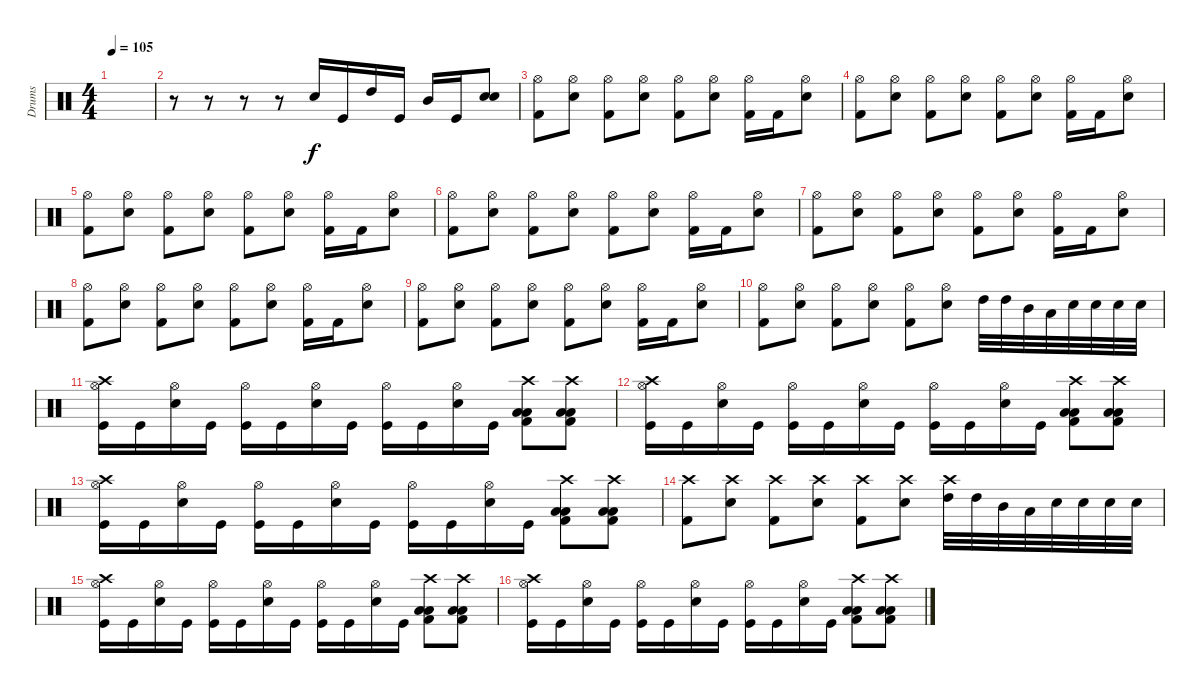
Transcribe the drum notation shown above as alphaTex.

\track ("Drums" "Drums") {instrument percussion}
\staff {score}
\articulation defaults
\ts (4 4)
\tempo 105
\clef neutral
\ks c
|
r.8 r.8 r.8 r.8 "Snare (hit) 2".16 "Kick (hit)".16 "High Tom (hit)".16 "Kick (hit)".16 "Mid Tom (hit)".16 "Kick (hit)".16 ("Snare (hit) 2" "Snare (hit) 2").8 |
("Hi-Hat (open)" "Kick (hit) 2").8 ("Hi-Hat (open)" "Snare (hit) 2").8 ("Hi-Hat (open)" "Kick (hit) 2").8 ("Hi-Hat (open)" "Snare (hit) 2").8 ("Hi-Hat (open)" "Kick (hit) 2").8 ("Hi-Hat (open)" "Snare (hit) 2").8 ("Hi-Hat (open)" "Kick (hit) 2").16 "Kick (hit) 2".16 ("Hi-Hat (open)" "Snare (hit) 2").8 |
("Hi-Hat (open)" "Kick (hit) 2").8 ("Hi-Hat (open)" "Snare (hit) 2").8 ("Hi-Hat (open)" "Kick (hit) 2").8 ("Hi-Hat (open)" "Snare (hit) 2").8 ("Hi-Hat (open)" "Kick (hit) 2").8 ("Hi-Hat (open)" "Snare (hit) 2").8 ("Hi-Hat (open)" "Kick (hit) 2").16 "Kick (hit) 2".16 ("Hi-Hat (open)" "Snare (hit) 2").8 |
("Hi-Hat (open)" "Kick (hit) 2").8 ("Hi-Hat (open)" "Snare (hit) 2").8 ("Hi-Hat (open)" "Kick (hit) 2").8 ("Hi-Hat (open)" "Snare (hit) 2").8 ("Hi-Hat (open)" "Kick (hit) 2").8 ("Hi-Hat (open)" "Snare (hit) 2").8 ("Hi-Hat (open)" "Kick (hit) 2").16 "Kick (hit) 2".16 ("Hi-Hat (open)" "Snare (hit) 2").8 |
("Hi-Hat (open)" "Kick (hit) 2").8 ("Hi-Hat (open)" "Snare (hit) 2").8 ("Hi-Hat (open)" "Kick (hit) 2").8 ("Hi-Hat (open)" "Snare (hit) 2").8 ("Hi-Hat (open)" "Kick (hit) 2").8 ("Hi-Hat (open)" "Snare (hit) 2").8 ("Hi-Hat (open)" "Kick (hit) 2").16 "Kick (hit) 2".16 ("Hi-Hat (open)" "Snare (hit) 2").8 |
("Hi-Hat (open)" "Kick (hit) 2").8 ("Hi-Hat (open)" "Snare (hit) 2").8 ("Hi-Hat (open)" "Kick (hit) 2").8 ("Hi-Hat (open)" "Snare (hit) 2").8 ("Hi-Hat (open)" "Kick (hit) 2").8 ("Hi-Hat (open)" "Snare (hit) 2").8 ("Hi-Hat (open)" "Kick (hit) 2").16 "Kick (hit) 2".16 ("Hi-Hat (open)" "Snare (hit) 2").8 |
("Hi-Hat (open)" "Kick (hit) 2").8 ("Hi-Hat (open)" "Snare (hit) 2").8 ("Hi-Hat (open)" "Kick (hit) 2").8 ("Hi-Hat (open)" "Snare (hit) 2").8 ("Hi-Hat (open)" "Kick (hit) 2").8 ("Hi-Hat (open)" "Snare (hit) 2").8 ("Hi-Hat (open)" "Kick (hit) 2").16 "Kick (hit) 2".16 ("Hi-Hat (open)" "Snare (hit) 2").8 |
("Hi-Hat (open)" "Kick (hit) 2").8 ("Hi-Hat (open)" "Snare (hit) 2").8 ("Hi-Hat (open)" "Kick (hit) 2").8 ("Hi-Hat (open)" "Snare (hit) 2").8 ("Hi-Hat (open)" "Kick (hit) 2").8 ("Hi-Hat (open)" "Snare (hit) 2").8 ("Hi-Hat (open)" "Kick (hit) 2").16 "Kick (hit) 2".16 ("Hi-Hat (open)" "Snare (hit) 2").8 |
("Hi-Hat (open)" "Kick (hit) 2").8 ("Hi-Hat (open)" "Snare (hit) 2").8 ("Hi-Hat (open)" "Kick (hit) 2").8 ("Hi-Hat (open)" "Snare (hit) 2").8 ("Hi-Hat (open)" "Kick (hit) 2").8 ("Hi-Hat (open)" "Snare (hit) 2").8 "High Tom (hit)".32 "High Tom (hit)".32 "Mid Tom (hit)".32 "Low Tom (hit)".32 "Snare (hit) 2".32 "Snare (hit) 2".32 "Snare (hit) 2".32 "Snare (hit) 2".32 |
("Crash high (hit)" "Hi-Hat (open)" "Kick (hit)").16 "Kick (hit)".16 ("Hi-Hat (open)" "Snare (hit) 2").16 "Kick (hit)".16 ("Hi-Hat (open)" "Kick (hit)").16 "Kick (hit)".16 ("Hi-Hat (open)" "Snare (hit) 2").16 "Kick (hit)".16 ("Hi-Hat (open)" "Kick (hit)").16 "Kick (hit)".16 ("Hi-Hat (open)" "Snare (hit) 2").16 "Kick (hit)".16 ("Crash high (hit)" "Low Tom (hit)" "Low Tom (hit)" "Kick (hit) 2").8 ("Crash high (hit)" "Low Tom (hit)" "Low Tom (hit)" "Kick (hit) 2").8 |
("Crash high (hit)" "Hi-Hat (open)" "Kick (hit)").16 "Kick (hit)".16 ("Hi-Hat (open)" "Snare (hit) 2").16 "Kick (hit)".16 ("Hi-Hat (open)" "Kick (hit)").16 "Kick (hit)".16 ("Hi-Hat (open)" "Snare (hit) 2").16 "Kick (hit)".16 ("Hi-Hat (open)" "Kick (hit)").16 "Kick (hit)".16 ("Hi-Hat (open)" "Snare (hit) 2").16 "Kick (hit)".16 ("Crash high (hit)" "Low Tom (hit)" "Low Tom (hit)" "Kick (hit) 2").8 ("Crash high (hit)" "Low Tom (hit)" "Low Tom (hit)" "Kick (hit) 2").8 |
("Crash high (hit)" "Hi-Hat (open)" "Kick (hit)").16 "Kick (hit)".16 ("Hi-Hat (open)" "Snare (hit) 2").16 "Kick (hit)".16 ("Hi-Hat (open)" "Kick (hit)").16 "Kick (hit)".16 ("Hi-Hat (open)" "Snare (hit) 2").16 "Kick (hit)".16 ("Hi-Hat (open)" "Kick (hit)").16 "Kick (hit)".16 ("Hi-Hat (open)" "Snare (hit) 2").16 "Kick (hit)".16 ("Crash high (hit)" "Low Tom (hit)" "Low Tom (hit)" "Kick (hit) 2").8 ("Crash high (hit)" "Low Tom (hit)" "Low Tom (hit)" "Kick (hit) 2").8 |
("Crash high (hit)" "Kick (hit) 2").8 ("Crash high (hit)" "Snare (hit) 2").8 ("Crash high (hit)" "Kick (hit) 2").8 ("Crash high (hit)" "Snare (hit) 2").8 ("Crash high (hit)" "Kick (hit) 2").8 ("Crash high (hit)" "Snare (hit) 2").8 ("Crash high (hit)" "High Tom (hit)").32 "High Tom (hit)".32 "Mid Tom (hit)".32 "Low Tom (hit)".32 "Snare (hit) 2".32 "Snare (hit) 2".32 "Snare (hit) 2".32 "Snare (hit) 2".32 |
("Crash high (hit)" "Hi-Hat (open)" "Kick (hit)").16 "Kick (hit)".16 ("Hi-Hat (open)" "Snare (hit) 2").16 "Kick (hit)".16 ("Hi-Hat (open)" "Kick (hit)").16 "Kick (hit)".16 ("Hi-Hat (open)" "Snare (hit) 2").16 "Kick (hit)".16 ("Hi-Hat (open)" "Kick (hit)").16 "Kick (hit)".16 ("Hi-Hat (open)" "Snare (hit) 2").16 "Kick (hit)".16 ("Crash high (hit)" "Low Tom (hit)" "Low Tom (hit)" "Kick (hit) 2").8 ("Crash high (hit)" "Low Tom (hit)" "Low Tom (hit)" "Kick (hit) 2").8 |
("Crash high (hit)" "Hi-Hat (open)" "Kick (hit)").16 "Kick (hit)".16 ("Hi-Hat (open)" "Snare (hit) 2").16 "Kick (hit)".16 ("Hi-Hat (open)" "Kick (hit)").16 "Kick (hit)".16 ("Hi-Hat (open)" "Snare (hit) 2").16 "Kick (hit)".16 ("Hi-Hat (open)" "Kick (hit)").16 "Kick (hit)".16 ("Hi-Hat (open)" "Snare (hit) 2").16 "Kick (hit)".16 ("Crash high (hit)" "Low Tom (hit)" "Low Tom (hit)" "Kick (hit) 2").8 ("Crash high (hit)" "Low Tom (hit)" "Low Tom (hit)" "Kick (hit) 2").8
